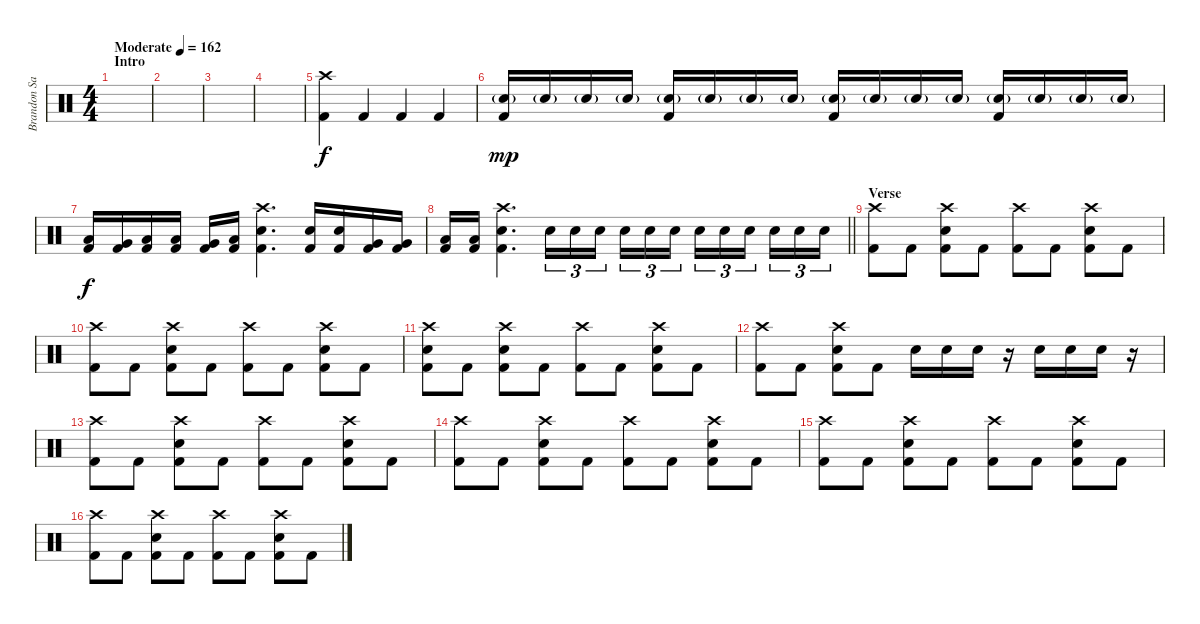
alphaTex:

\track ("Brandon Saller" "Brandon Sa") {instrument percussion}
\staff {score}
\articulation defaults
\ts (4 4)
\section ("" "Intro")
\tempo (162 "Moderate")
\clef neutral
\ks c
|
|
|
|
("Crash high (hit)" "Kick (hit) 2").4 "Kick (hit) 2".4 "Kick (hit) 2".4 "Kick (hit) 2".4 |
("Snare (hit) 2"{g} "Kick (hit) 2").16{dy mp} "Snare (hit) 2"{g}.16 "Snare (hit) 2"{g}.16 "Snare (hit) 2"{g}.16 ("Snare (hit) 2"{g} "Kick (hit) 2").16 "Snare (hit) 2"{g}.16 "Snare (hit) 2"{g}.16 "Snare (hit) 2"{g}.16 ("Snare (hit) 2"{g} "Kick (hit) 2").16 "Snare (hit) 2"{g}.16 "Snare (hit) 2"{g}.16 "Snare (hit) 2"{g}.16 ("Snare (hit) 2"{g} "Kick (hit) 2").16 "Snare (hit) 2"{g}.16 "Snare (hit) 2"{g}.16 "Snare (hit) 2"{g}.16 |
("Low Tom (hit)" "Kick (hit) 2").16{dy f} ("Very Low Tom (hit)" "Kick (hit) 2").16 ("Low Floor Tom (hit)" "Kick (hit) 2").16 ("Low Tom (hit)" "Kick (hit) 2").16 ("Very Low Tom (hit)" "Kick (hit) 2").16 ("Low Floor Tom (hit)" "Kick (hit) 2").16 ("Crash high (hit)" "Electric Snare (hit)" "Kick (hit) 2").4{d} ("Electric Snare (hit)" "Kick (hit) 2").16 ("Electric Snare (hit)" "Kick (hit) 2").16 ("Very Low Tom (hit)" "Kick (hit) 2").16 ("Very Low Tom (hit)" "Kick (hit) 2").16 |
\barLineRight lightlight
("Low Floor Tom (hit)" "Kick (hit) 2").16 ("Low Floor Tom (hit)" "Kick (hit) 2").16 ("Crash high (hit)" "Electric Snare (hit)" "Kick (hit) 2").4{d} "Electric Snare (hit)".16{tu (3 2)} "Electric Snare (hit)".16{tu (3 2)} "Electric Snare (hit)".16{tu (3 2) beam splitsecondary} "Electric Snare (hit)".16{tu (3 2)} "Electric Snare (hit)".16{tu (3 2)} "Electric Snare (hit)".16{tu (3 2)} "Electric Snare (hit)".16{tu (3 2)} "Electric Snare (hit)".16{tu (3 2)} "Electric Snare (hit)".16{tu (3 2) beam splitsecondary} "Electric Snare (hit)".16{tu (3 2)} "Electric Snare (hit)".16{tu (3 2)} "Electric Snare (hit)".16{tu (3 2)} |
\section ("" "Verse")
("Crash high (hit)" "Kick (hit) 2").8 "Kick (hit) 2".8 ("Crash high (hit)" "Electric Snare (hit)" "Kick (hit) 2").8 "Kick (hit) 2".8 ("Crash high (hit)" "Kick (hit) 2").8 "Kick (hit) 2".8 ("Crash high (hit)" "Electric Snare (hit)" "Kick (hit) 2").8 "Kick (hit) 2".8 |
("Crash high (hit)" "Kick (hit) 2").8 "Kick (hit) 2".8 ("Crash high (hit)" "Electric Snare (hit)" "Kick (hit) 2").8 "Kick (hit) 2".8 ("Crash high (hit)" "Kick (hit) 2").8 "Kick (hit) 2".8 ("Crash high (hit)" "Electric Snare (hit)" "Kick (hit) 2").8 "Kick (hit) 2".8 |
("Crash high (hit)" "Electric Snare (hit)" "Kick (hit) 2").8 "Kick (hit) 2".8 ("Crash high (hit)" "Electric Snare (hit)" "Kick (hit) 2").8 "Kick (hit) 2".8 ("Crash high (hit)" "Kick (hit) 2").8 "Kick (hit) 2".8 ("Crash high (hit)" "Electric Snare (hit)" "Kick (hit) 2").8 "Kick (hit) 2".8 |
("Crash high (hit)" "Kick (hit) 2").8 "Kick (hit) 2".8 ("Crash high (hit)" "Electric Snare (hit)" "Kick (hit) 2").8 "Kick (hit) 2".8 "Electric Snare (hit)".16 "Electric Snare (hit)".16 "Electric Snare (hit)".16 r.16 "Electric Snare (hit)".16 "Electric Snare (hit)".16 "Electric Snare (hit)".16 r.16 |
("Crash high (hit)" "Kick (hit) 2").8 "Kick (hit) 2".8 ("Crash high (hit)" "Electric Snare (hit)" "Kick (hit) 2").8 "Kick (hit) 2".8 ("Crash high (hit)" "Kick (hit) 2").8 "Kick (hit) 2".8 ("Crash high (hit)" "Electric Snare (hit)" "Kick (hit) 2").8 "Kick (hit) 2".8 |
("Crash high (hit)" "Kick (hit) 2").8 "Kick (hit) 2".8 ("Crash high (hit)" "Electric Snare (hit)" "Kick (hit) 2").8 "Kick (hit) 2".8 ("Crash high (hit)" "Kick (hit) 2").8 "Kick (hit) 2".8 ("Crash high (hit)" "Electric Snare (hit)" "Kick (hit) 2").8 "Kick (hit) 2".8 |
("Crash high (hit)" "Kick (hit) 2").8 "Kick (hit) 2".8 ("Crash high (hit)" "Electric Snare (hit)" "Kick (hit) 2").8 "Kick (hit) 2".8 ("Crash high (hit)" "Kick (hit) 2").8 "Kick (hit) 2".8 ("Crash high (hit)" "Electric Snare (hit)" "Kick (hit) 2").8 "Kick (hit) 2".8 |
("Crash high (hit)" "Kick (hit) 2").8 "Kick (hit) 2".8 ("Crash high (hit)" "Electric Snare (hit)" "Kick (hit) 2").8 "Kick (hit) 2".8 ("Crash high (hit)" "Kick (hit) 2").8 "Kick (hit) 2".8 ("Crash high (hit)" "Electric Snare (hit)" "Kick (hit) 2").8 "Kick (hit) 2".8
